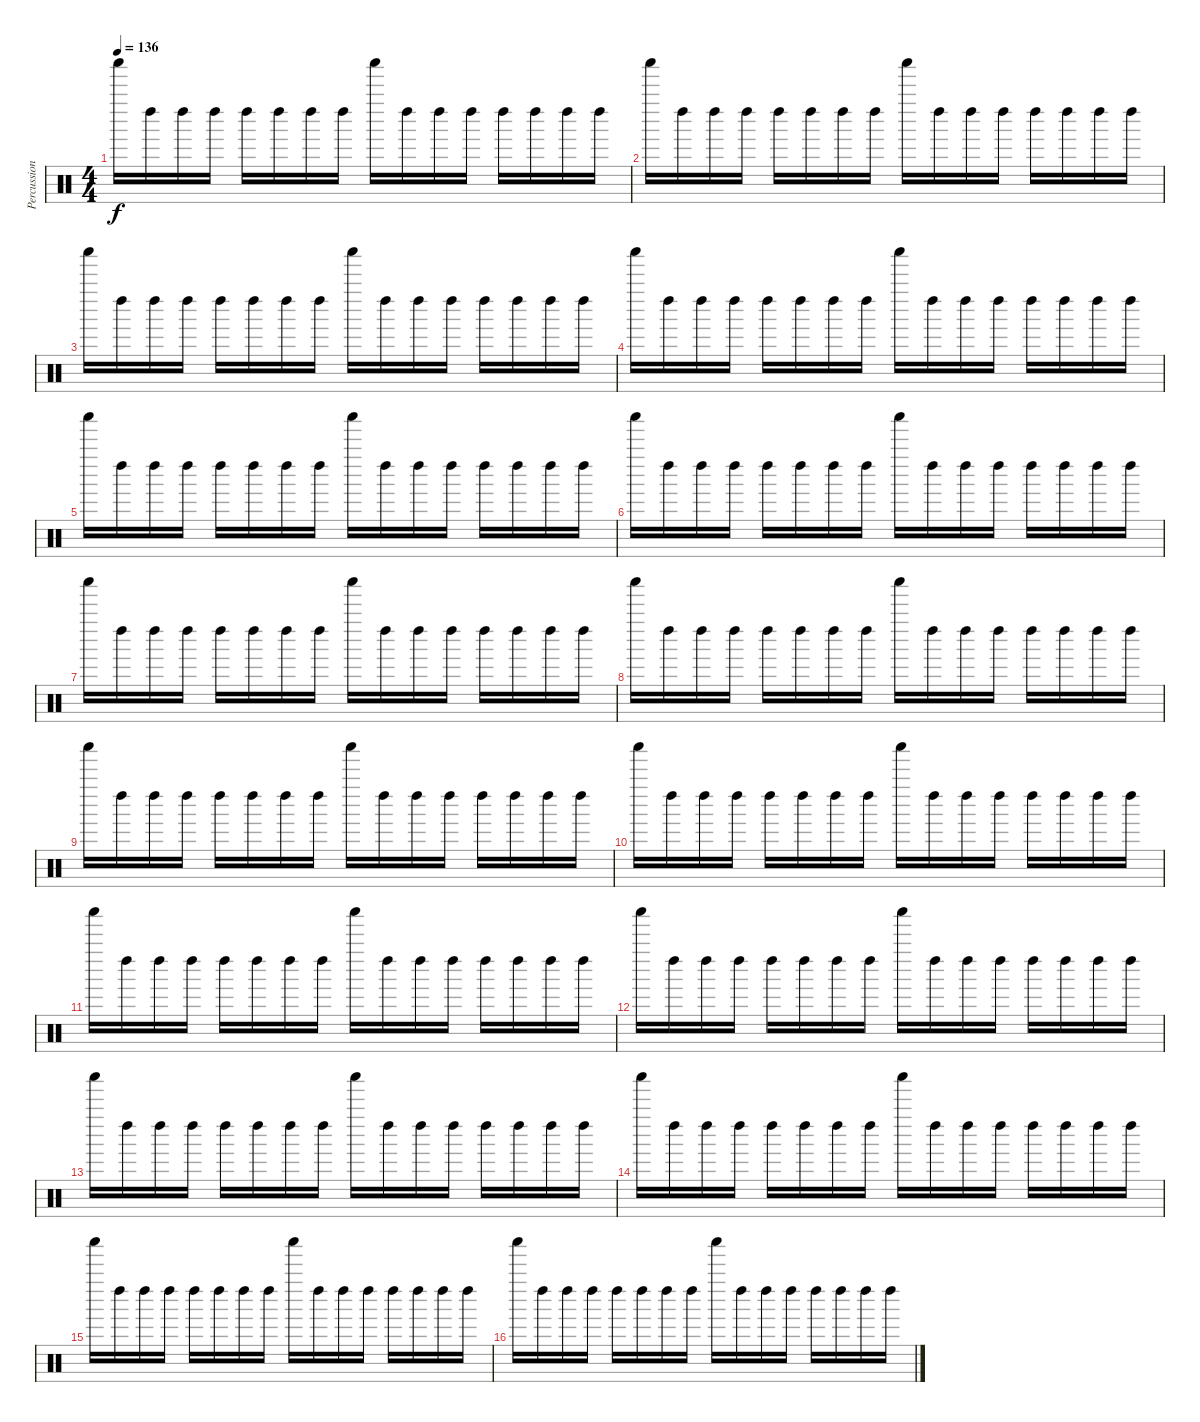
\track ("Percussion" "Percussion") {instrument percussion}
\staff {score}
\articulation defaults
\ts (4 4)
\tempo 136
\clef neutral
\ks c "Shaker (hit)".16{dy f} "Left Maraca (hit)".16 "Left Maraca (hit)".16 "Left Maraca (hit)".16 "Left Maraca (hit)".16 "Left Maraca (hit)".16 "Left Maraca (hit)".16 "Left Maraca (hit)".16 "Shaker (hit)".16 "Left Maraca (hit)".16 "Left Maraca (hit)".16 "Left Maraca (hit)".16 "Left Maraca (hit)".16 "Left Maraca (hit)".16 "Left Maraca (hit)".16 "Left Maraca (hit)".16
|
"Shaker (hit)".16 "Left Maraca (hit)".16 "Left Maraca (hit)".16 "Left Maraca (hit)".16 "Left Maraca (hit)".16 "Left Maraca (hit)".16 "Left Maraca (hit)".16 "Left Maraca (hit)".16 "Shaker (hit)".16 "Left Maraca (hit)".16 "Left Maraca (hit)".16 "Left Maraca (hit)".16 "Left Maraca (hit)".16 "Left Maraca (hit)".16 "Left Maraca (hit)".16 "Left Maraca (hit)".16 |
"Shaker (hit)".16 "Left Maraca (hit)".16 "Left Maraca (hit)".16 "Left Maraca (hit)".16 "Left Maraca (hit)".16 "Left Maraca (hit)".16 "Left Maraca (hit)".16 "Left Maraca (hit)".16 "Shaker (hit)".16 "Left Maraca (hit)".16 "Left Maraca (hit)".16 "Left Maraca (hit)".16 "Left Maraca (hit)".16 "Left Maraca (hit)".16 "Left Maraca (hit)".16 "Left Maraca (hit)".16 |
"Shaker (hit)".16 "Left Maraca (hit)".16 "Left Maraca (hit)".16 "Left Maraca (hit)".16 "Left Maraca (hit)".16 "Left Maraca (hit)".16 "Left Maraca (hit)".16 "Left Maraca (hit)".16 "Shaker (hit)".16 "Left Maraca (hit)".16 "Left Maraca (hit)".16 "Left Maraca (hit)".16 "Left Maraca (hit)".16 "Left Maraca (hit)".16 "Left Maraca (hit)".16 "Left Maraca (hit)".16 |
"Shaker (hit)".16 "Left Maraca (hit)".16 "Left Maraca (hit)".16 "Left Maraca (hit)".16 "Left Maraca (hit)".16 "Left Maraca (hit)".16 "Left Maraca (hit)".16 "Left Maraca (hit)".16 "Shaker (hit)".16 "Left Maraca (hit)".16 "Left Maraca (hit)".16 "Left Maraca (hit)".16 "Left Maraca (hit)".16 "Left Maraca (hit)".16 "Left Maraca (hit)".16 "Left Maraca (hit)".16 |
"Shaker (hit)".16 "Left Maraca (hit)".16 "Left Maraca (hit)".16 "Left Maraca (hit)".16 "Left Maraca (hit)".16 "Left Maraca (hit)".16 "Left Maraca (hit)".16 "Left Maraca (hit)".16 "Shaker (hit)".16 "Left Maraca (hit)".16 "Left Maraca (hit)".16 "Left Maraca (hit)".16 "Left Maraca (hit)".16 "Left Maraca (hit)".16 "Left Maraca (hit)".16 "Left Maraca (hit)".16 |
"Shaker (hit)".16 "Left Maraca (hit)".16 "Left Maraca (hit)".16 "Left Maraca (hit)".16 "Left Maraca (hit)".16 "Left Maraca (hit)".16 "Left Maraca (hit)".16 "Left Maraca (hit)".16 "Shaker (hit)".16 "Left Maraca (hit)".16 "Left Maraca (hit)".16 "Left Maraca (hit)".16 "Left Maraca (hit)".16 "Left Maraca (hit)".16 "Left Maraca (hit)".16 "Left Maraca (hit)".16 |
"Shaker (hit)".16 "Left Maraca (hit)".16 "Left Maraca (hit)".16 "Left Maraca (hit)".16 "Left Maraca (hit)".16 "Left Maraca (hit)".16 "Left Maraca (hit)".16 "Left Maraca (hit)".16 "Shaker (hit)".16 "Left Maraca (hit)".16 "Left Maraca (hit)".16 "Left Maraca (hit)".16 "Left Maraca (hit)".16 "Left Maraca (hit)".16 "Left Maraca (hit)".16 "Left Maraca (hit)".16 |
"Shaker (hit)".16 "Left Maraca (hit)".16 "Left Maraca (hit)".16 "Left Maraca (hit)".16 "Left Maraca (hit)".16 "Left Maraca (hit)".16 "Left Maraca (hit)".16 "Left Maraca (hit)".16 "Shaker (hit)".16 "Left Maraca (hit)".16 "Left Maraca (hit)".16 "Left Maraca (hit)".16 "Left Maraca (hit)".16 "Left Maraca (hit)".16 "Left Maraca (hit)".16 "Left Maraca (hit)".16 |
"Shaker (hit)".16 "Left Maraca (hit)".16 "Left Maraca (hit)".16 "Left Maraca (hit)".16 "Left Maraca (hit)".16 "Left Maraca (hit)".16 "Left Maraca (hit)".16 "Left Maraca (hit)".16 "Shaker (hit)".16 "Left Maraca (hit)".16 "Left Maraca (hit)".16 "Left Maraca (hit)".16 "Left Maraca (hit)".16 "Left Maraca (hit)".16 "Left Maraca (hit)".16 "Left Maraca (hit)".16 |
"Shaker (hit)".16 "Left Maraca (hit)".16 "Left Maraca (hit)".16 "Left Maraca (hit)".16 "Left Maraca (hit)".16 "Left Maraca (hit)".16 "Left Maraca (hit)".16 "Left Maraca (hit)".16 "Shaker (hit)".16 "Left Maraca (hit)".16 "Left Maraca (hit)".16 "Left Maraca (hit)".16 "Left Maraca (hit)".16 "Left Maraca (hit)".16 "Left Maraca (hit)".16 "Left Maraca (hit)".16 |
"Shaker (hit)".16 "Left Maraca (hit)".16 "Left Maraca (hit)".16 "Left Maraca (hit)".16 "Left Maraca (hit)".16 "Left Maraca (hit)".16 "Left Maraca (hit)".16 "Left Maraca (hit)".16 "Shaker (hit)".16 "Left Maraca (hit)".16 "Left Maraca (hit)".16 "Left Maraca (hit)".16 "Left Maraca (hit)".16 "Left Maraca (hit)".16 "Left Maraca (hit)".16 "Left Maraca (hit)".16 |
"Shaker (hit)".16 "Left Maraca (hit)".16 "Left Maraca (hit)".16 "Left Maraca (hit)".16 "Left Maraca (hit)".16 "Left Maraca (hit)".16 "Left Maraca (hit)".16 "Left Maraca (hit)".16 "Shaker (hit)".16 "Left Maraca (hit)".16 "Left Maraca (hit)".16 "Left Maraca (hit)".16 "Left Maraca (hit)".16 "Left Maraca (hit)".16 "Left Maraca (hit)".16 "Left Maraca (hit)".16 |
"Shaker (hit)".16 "Left Maraca (hit)".16 "Left Maraca (hit)".16 "Left Maraca (hit)".16 "Left Maraca (hit)".16 "Left Maraca (hit)".16 "Left Maraca (hit)".16 "Left Maraca (hit)".16 "Shaker (hit)".16 "Left Maraca (hit)".16 "Left Maraca (hit)".16 "Left Maraca (hit)".16 "Left Maraca (hit)".16 "Left Maraca (hit)".16 "Left Maraca (hit)".16 "Left Maraca (hit)".16 |
"Shaker (hit)".16 "Left Maraca (hit)".16 "Left Maraca (hit)".16 "Left Maraca (hit)".16 "Left Maraca (hit)".16 "Left Maraca (hit)".16 "Left Maraca (hit)".16 "Left Maraca (hit)".16 "Shaker (hit)".16 "Left Maraca (hit)".16 "Left Maraca (hit)".16 "Left Maraca (hit)".16 "Left Maraca (hit)".16 "Left Maraca (hit)".16 "Left Maraca (hit)".16 "Left Maraca (hit)".16 |
"Shaker (hit)".16 "Left Maraca (hit)".16 "Left Maraca (hit)".16 "Left Maraca (hit)".16 "Left Maraca (hit)".16 "Left Maraca (hit)".16 "Left Maraca (hit)".16 "Left Maraca (hit)".16 "Shaker (hit)".16 "Left Maraca (hit)".16 "Left Maraca (hit)".16 "Left Maraca (hit)".16 "Left Maraca (hit)".16 "Left Maraca (hit)".16 "Left Maraca (hit)".16 "Left Maraca (hit)".16
